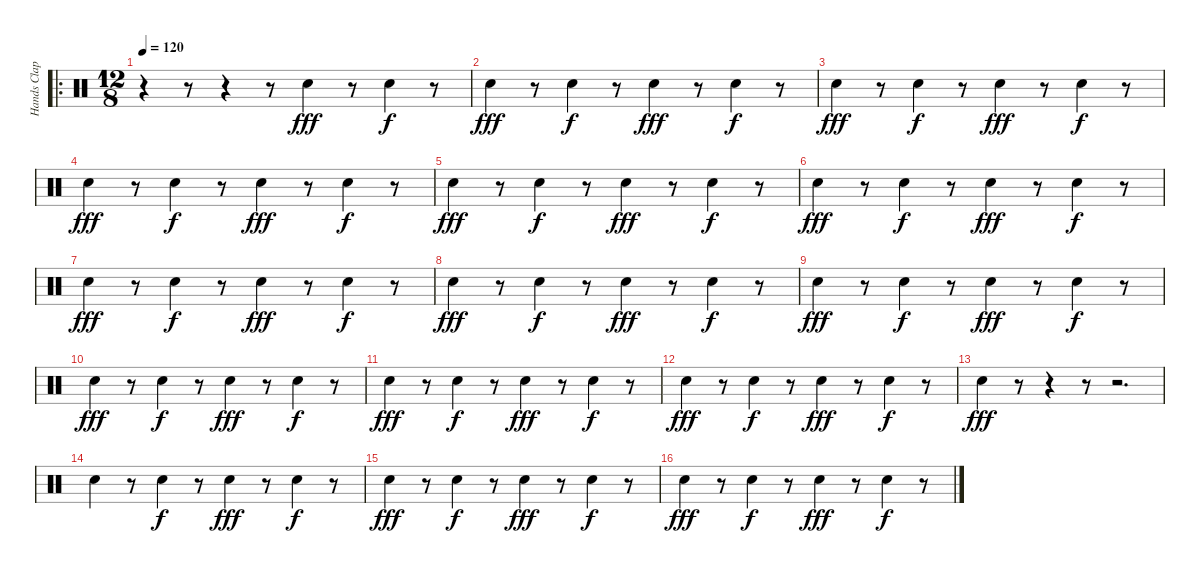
\track ("Hands Claping" "Hands Clap") {instrument percussion}
\staff {score}
\articulation defaults
\ro
\ts (12 8)
\tempo 120
\clef neutral
\ks c
r.4{dy fff} r.8 r.4 r.8 "Hand Clap (hit)".4 r.8 "Hand Clap (hit)".4{dy f} r.8 |
"Hand Clap (hit)".4{dy fff} r.8 "Hand Clap (hit)".4{dy f} r.8 "Hand Clap (hit)".4{dy fff} r.8 "Hand Clap (hit)".4{dy f} r.8 |
"Hand Clap (hit)".4{dy fff} r.8 "Hand Clap (hit)".4{dy f} r.8 "Hand Clap (hit)".4{dy fff} r.8 "Hand Clap (hit)".4{dy f} r.8 |
"Hand Clap (hit)".4{dy fff} r.8 "Hand Clap (hit)".4{dy f} r.8 "Hand Clap (hit)".4{dy fff} r.8 "Hand Clap (hit)".4{dy f} r.8 |
"Hand Clap (hit)".4{dy fff} r.8 "Hand Clap (hit)".4{dy f} r.8 "Hand Clap (hit)".4{dy fff} r.8 "Hand Clap (hit)".4{dy f} r.8 |
"Hand Clap (hit)".4{dy fff} r.8 "Hand Clap (hit)".4{dy f} r.8 "Hand Clap (hit)".4{dy fff} r.8 "Hand Clap (hit)".4{dy f} r.8 |
"Hand Clap (hit)".4{dy fff} r.8 "Hand Clap (hit)".4{dy f} r.8 "Hand Clap (hit)".4{dy fff} r.8 "Hand Clap (hit)".4{dy f} r.8 |
"Hand Clap (hit)".4{dy fff} r.8 "Hand Clap (hit)".4{dy f} r.8 "Hand Clap (hit)".4{dy fff} r.8 "Hand Clap (hit)".4{dy f} r.8 |
"Hand Clap (hit)".4{dy fff} r.8 "Hand Clap (hit)".4{dy f} r.8 "Hand Clap (hit)".4{dy fff} r.8 "Hand Clap (hit)".4{dy f} r.8 |
"Hand Clap (hit)".4{dy fff} r.8 "Hand Clap (hit)".4{dy f} r.8 "Hand Clap (hit)".4{dy fff} r.8 "Hand Clap (hit)".4{dy f} r.8 |
"Hand Clap (hit)".4{dy fff} r.8 "Hand Clap (hit)".4{dy f} r.8 "Hand Clap (hit)".4{dy fff} r.8 "Hand Clap (hit)".4{dy f} r.8 |
"Hand Clap (hit)".4{dy fff} r.8 "Hand Clap (hit)".4{dy f} r.8 "Hand Clap (hit)".4{dy fff} r.8 "Hand Clap (hit)".4{dy f} r.8 |
"Hand Clap (hit)".4{dy fff} r.8 r.4 r.8 r.2{d} |
"Hand Clap (hit)".4 r.8 "Hand Clap (hit)".4{dy f} r.8 "Hand Clap (hit)".4{dy fff} r.8 "Hand Clap (hit)".4{dy f} r.8 |
"Hand Clap (hit)".4{dy fff} r.8 "Hand Clap (hit)".4{dy f} r.8 "Hand Clap (hit)".4{dy fff} r.8 "Hand Clap (hit)".4{dy f} r.8 |
"Hand Clap (hit)".4{dy fff} r.8 "Hand Clap (hit)".4{dy f} r.8 "Hand Clap (hit)".4{dy fff} r.8 "Hand Clap (hit)".4{dy f} r.8
